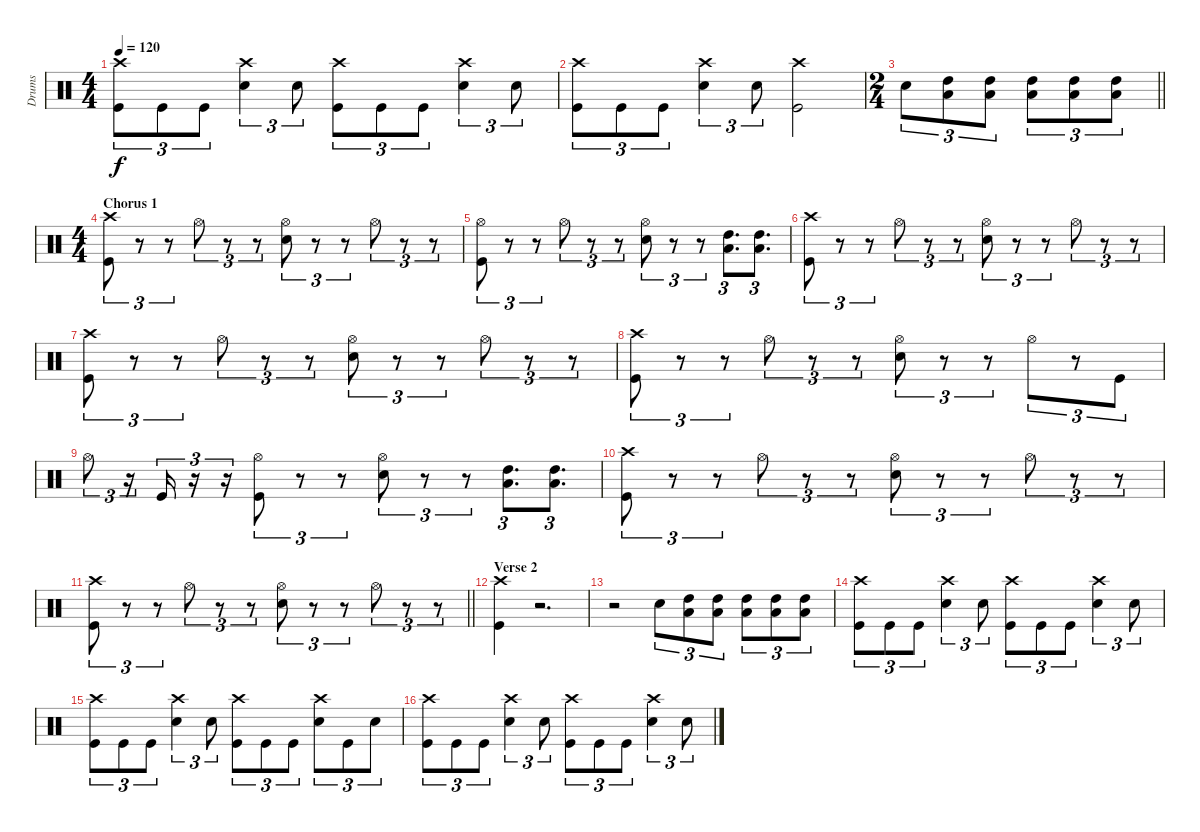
\track ("Drums" "Drums") {instrument percussion}
\staff {score}
\articulation defaults
\ts (4 4)
\tempo 120
\clef neutral
\ks c
("Crash high (hit)" "Kick (hit)").8{tu (3 2) dy f} "Kick (hit)".8{tu (3 2)} "Kick (hit)".8{tu (3 2)} ("Crash high (hit)" "Snare (hit) 2").4{tu (3 2)} "Snare (hit) 2".8{tu (3 2)} ("Crash high (hit)" "Kick (hit)").8{tu (3 2)} "Kick (hit)".8{tu (3 2)} "Kick (hit)".8{tu (3 2)} ("Crash high (hit)" "Snare (hit) 2").4{tu (3 2)} "Snare (hit) 2".8{tu (3 2)} |
("Crash high (hit)" "Kick (hit)").8{tu (3 2)} "Kick (hit)".8{tu (3 2)} "Kick (hit)".8{tu (3 2)} ("Crash high (hit)" "Snare (hit) 2").4{tu (3 2)} "Snare (hit) 2".8{tu (3 2)} ("Crash high (hit)" "Kick (hit)").2 |
\ts (2 4)
\barLineRight lightlight "Snare (hit) 2".8{tu (3 2)}
("High Tom (hit)" "Low Floor Tom (hit)").8{tu (3 2)} ("High Tom (hit)" "Low Floor Tom (hit)").8{tu (3 2)} ("High Tom (hit)" "Low Floor Tom (hit)").8{tu (3 2)} ("High Tom (hit)" "Low Floor Tom (hit)").8{tu (3 2)} ("High Tom (hit)" "Low Floor Tom (hit)").8{tu (3 2)} |
\ts (4 4)
\section ("" "Chorus 1")
("Crash high (hit)" "Kick (hit)").8{tu (3 2)} r.8{tu (3 2)} r.8{tu (3 2)} "Hi-Hat (open)".8{tu (3 2)} r.8{tu (3 2)} r.8{tu (3 2)} ("Hi-Hat (open)" "Snare (hit) 2").8{tu (3 2)} r.8{tu (3 2)} r.8{tu (3 2)} "Hi-Hat (open)".8{tu (3 2)} r.8{tu (3 2)} r.8{tu (3 2)} |
("Hi-Hat (open)" "Kick (hit)").8{tu (3 2)} r.8{tu (3 2)} r.8{tu (3 2)} "Hi-Hat (open)".8{tu (3 2)} r.8{tu (3 2)} r.8{tu (3 2)} ("Hi-Hat (open)" "Snare (hit) 2").8{tu (3 2)} r.8{tu (3 2)} r.8{tu (3 2)} ("High Tom (hit)" "Low Floor Tom (hit)").8{d tu (3 2)} ("High Tom (hit)" "Low Floor Tom (hit)").8{d tu (3 2)} |
("Crash high (hit)" "Kick (hit)").8{tu (3 2)} r.8{tu (3 2)} r.8{tu (3 2)} "Hi-Hat (open)".8{tu (3 2)} r.8{tu (3 2)} r.8{tu (3 2)} ("Hi-Hat (open)" "Snare (hit) 2").8{tu (3 2)} r.8{tu (3 2)} r.8{tu (3 2)} "Hi-Hat (open)".8{tu (3 2)} r.8{tu (3 2)} r.8{tu (3 2)} |
("Crash high (hit)" "Kick (hit)").8{tu (3 2)} r.8{tu (3 2)} r.8{tu (3 2)} "Hi-Hat (open)".8{tu (3 2)} r.8{tu (3 2)} r.8{tu (3 2)} ("Hi-Hat (open)" "Snare (hit) 2").8{tu (3 2)} r.8{tu (3 2)} r.8{tu (3 2)} "Hi-Hat (open)".8{tu (3 2)} r.8{tu (3 2)} r.8{tu (3 2)} |
("Crash high (hit)" "Kick (hit)").8{tu (3 2)} r.8{tu (3 2)} r.8{tu (3 2)} "Hi-Hat (open)".8{tu (3 2)} r.8{tu (3 2)} r.8{tu (3 2)} ("Hi-Hat (open)" "Snare (hit) 2").8{tu (3 2)} r.8{tu (3 2)} r.8{tu (3 2)} "Hi-Hat (open)".8{tu (3 2)} r.8{tu (3 2)} "Kick (hit)".8{tu (3 2)} |
"Hi-Hat (open)".8{tu (3 2)} r.16{tu (3 2)} "Kick (hit)".16{tu (3 2)} r.16{tu (3 2)} r.16{tu (3 2)} ("Hi-Hat (open)" "Kick (hit)").8{tu (3 2)} r.8{tu (3 2)} r.8{tu (3 2)} ("Hi-Hat (open)" "Snare (hit) 2").8{tu (3 2)} r.8{tu (3 2)} r.8{tu (3 2)} ("High Tom (hit)" "Low Floor Tom (hit)").8{d tu (3 2)} ("High Tom (hit)" "Low Floor Tom (hit)").8{d tu (3 2)} |
("Crash high (hit)" "Kick (hit)").8{tu (3 2)} r.8{tu (3 2)} r.8{tu (3 2)} "Hi-Hat (open)".8{tu (3 2)} r.8{tu (3 2)} r.8{tu (3 2)} ("Hi-Hat (open)" "Snare (hit) 2").8{tu (3 2)} r.8{tu (3 2)} r.8{tu (3 2)} "Hi-Hat (open)".8{tu (3 2)} r.8{tu (3 2)} r.8{tu (3 2)} |
\barLineRight lightlight
("Crash high (hit)" "Kick (hit)").8{tu (3 2)} r.8{tu (3 2)} r.8{tu (3 2)} "Hi-Hat (open)".8{tu (3 2)} r.8{tu (3 2)} r.8{tu (3 2)} ("Hi-Hat (open)" "Snare (hit) 2").8{tu (3 2)} r.8{tu (3 2)} r.8{tu (3 2)} "Hi-Hat (open)".8{tu (3 2)} r.8{tu (3 2)} r.8{tu (3 2)} |
\section ("" "Verse 2 ")
("Crash high (hit)" "Kick (hit)").4 r.2{d} |
r.2 "Snare (hit) 2".8{tu (3 2)} ("High Tom (hit)" "Low Floor Tom (hit)").8{tu (3 2)} ("High Tom (hit)" "Low Floor Tom (hit)").8{tu (3 2)} ("High Tom (hit)" "Low Floor Tom (hit)").8{tu (3 2)} ("High Tom (hit)" "Low Floor Tom (hit)").8{tu (3 2)} ("High Tom (hit)" "Low Floor Tom (hit)").8{tu (3 2)} |
("Crash high (hit)" "Kick (hit)").8{tu (3 2)} "Kick (hit)".8{tu (3 2)} "Kick (hit)".8{tu (3 2)} ("Crash high (hit)" "Snare (hit) 2").4{tu (3 2)} "Snare (hit) 2".8{tu (3 2)} ("Crash high (hit)" "Kick (hit)").8{tu (3 2)} "Kick (hit)".8{tu (3 2)} "Kick (hit)".8{tu (3 2)} ("Crash high (hit)" "Snare (hit) 2").4{tu (3 2)} "Snare (hit) 2".8{tu (3 2)} |
("Crash high (hit)" "Kick (hit)").8{tu (3 2)} "Kick (hit)".8{tu (3 2)} "Kick (hit)".8{tu (3 2)} ("Crash high (hit)" "Snare (hit) 2").4{tu (3 2)} "Snare (hit) 2".8{tu (3 2)} ("Crash high (hit)" "Kick (hit)").8{tu (3 2)} "Kick (hit)".8{tu (3 2)} "Kick (hit)".8{tu (3 2)} ("Crash high (hit)" "Snare (hit) 2").8{tu (3 2)} "Kick (hit)".8{tu (3 2)} "Snare (hit) 2".8{tu (3 2)} |
("Crash high (hit)" "Kick (hit)").8{tu (3 2)} "Kick (hit)".8{tu (3 2)} "Kick (hit)".8{tu (3 2)} ("Crash high (hit)" "Snare (hit) 2").4{tu (3 2)} "Snare (hit) 2".8{tu (3 2)} ("Crash high (hit)" "Kick (hit)").8{tu (3 2)} "Kick (hit)".8{tu (3 2)} "Kick (hit)".8{tu (3 2)} ("Crash high (hit)" "Snare (hit) 2").4{tu (3 2)} "Snare (hit) 2".8{tu (3 2)}
